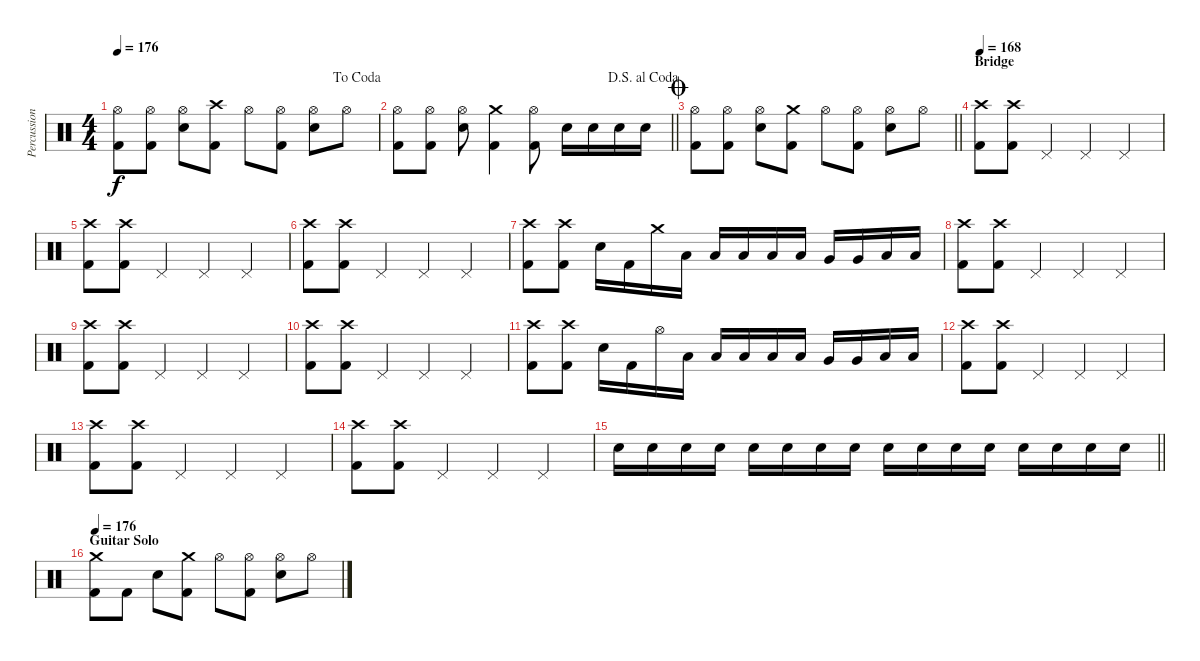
\track ("Percussion" "Percussion") {instrument percussion}
\staff {score}
\articulation defaults
\ts (4 4)
\jump dacoda
\tempo 176
\clef neutral
\ks c
("Hi-Hat (open)" "Kick (hit) 2").8{dy f} ("Hi-Hat (open)" "Kick (hit) 2").8 ("Hi-Hat (open)" "Snare (hit) 2").8 ("Crash high (hit)" "Kick (hit) 2").8 "Hi-Hat (open)".8 ("Hi-Hat (open)" "Kick (hit) 2").8 ("Hi-Hat (open)" "Snare (hit) 2").8 "Hi-Hat (open)".8 |
\jump dalsegnoalcoda
\barLineRight lightlight
("Hi-Hat (open)" "Kick (hit) 2").8 ("Hi-Hat (open)" "Kick (hit) 2").8 ("Hi-Hat (open)" "Snare (hit) 2").8 ("Crash medium (hit)" "Kick (hit) 2").4 ("Hi-Hat (open)" "Kick (hit) 2").8 "Snare (hit) 2".16 "Snare (hit) 2".16 "Snare (hit) 2".16 "Snare (hit) 2".16 |
\jump coda
\barLineRight lightlight
("Hi-Hat (open)" "Kick (hit) 2").8 ("Hi-Hat (open)" "Kick (hit) 2").8 ("Hi-Hat (open)" "Snare (hit) 2").8 ("Crash medium (hit)" "Kick (hit) 2").8 "Hi-Hat (open)".8 ("Hi-Hat (open)" "Kick (hit) 2").8 ("Hi-Hat (open)" "Snare (hit) 2").8 "Hi-Hat (open)".8 |
\section ("" "Bridge")
\tempo 168
("Crash high (hit)" "Kick (hit) 2").8 ("Crash high (hit)" "Kick (hit) 2").8 "Pedal Hi-Hat (hit)".4 "Pedal Hi-Hat (hit)".4 "Pedal Hi-Hat (hit)".4 |
("Crash high (hit)" "Kick (hit) 2").8 ("Crash high (hit)" "Kick (hit) 2").8 "Pedal Hi-Hat (hit)".4 "Pedal Hi-Hat (hit)".4 "Pedal Hi-Hat (hit)".4 |
("Crash high (hit)" "Kick (hit) 2").8 ("Crash high (hit)" "Kick (hit) 2").8 "Pedal Hi-Hat (hit)".4 "Pedal Hi-Hat (hit)".4 "Pedal Hi-Hat (hit)".4 |
("Crash high (hit)" "Kick (hit) 2").8 ("Crash high (hit)" "Kick (hit) 2").8 "Snare (hit) 2".16 "Kick (hit) 2".16 "Crash medium (hit)".16 "Low Tom (hit)".16 "Low Tom (hit)".16 "Low Tom (hit)".16 "Low Tom (hit)".16 "Low Tom (hit)".16 "Very Low Tom (hit)".16 "Very Low Tom (hit)".16 "Low Floor Tom (hit)".16 "Low Floor Tom (hit)".16 |
("Crash high (hit)" "Kick (hit) 2").8 ("Crash high (hit)" "Kick (hit) 2").8 "Pedal Hi-Hat (hit)".4 "Pedal Hi-Hat (hit)".4 "Pedal Hi-Hat (hit)".4 |
("Crash high (hit)" "Kick (hit) 2").8 ("Crash high (hit)" "Kick (hit) 2").8 "Pedal Hi-Hat (hit)".4 "Pedal Hi-Hat (hit)".4 "Pedal Hi-Hat (hit)".4 |
("Crash high (hit)" "Kick (hit) 2").8 ("Crash high (hit)" "Kick (hit) 2").8 "Pedal Hi-Hat (hit)".4 "Pedal Hi-Hat (hit)".4 "Pedal Hi-Hat (hit)".4 |
("Crash high (hit)" "Kick (hit) 2").8 ("Crash high (hit)" "Kick (hit) 2").8 "Snare (hit) 2".16 "Kick (hit) 2".16 "Hi-Hat (open)".16 "Low Tom (hit)".16 "Low Tom (hit)".16 "Low Tom (hit)".16 "Low Tom (hit)".16 "Low Tom (hit)".16 "Very Low Tom (hit)".16 "Very Low Tom (hit)".16 "Low Floor Tom (hit)".16 "Low Floor Tom (hit)".16 |
("Crash high (hit)" "Kick (hit) 2").8 ("Crash high (hit)" "Kick (hit) 2").8 "Pedal Hi-Hat (hit)".4 "Pedal Hi-Hat (hit)".4 "Pedal Hi-Hat (hit)".4 |
("Crash high (hit)" "Kick (hit) 2").8 ("Crash high (hit)" "Kick (hit) 2").8 "Pedal Hi-Hat (hit)".4 "Pedal Hi-Hat (hit)".4 "Pedal Hi-Hat (hit)".4 |
("Crash high (hit)" "Kick (hit) 2").8 ("Crash high (hit)" "Kick (hit) 2").8 "Pedal Hi-Hat (hit)".4 "Pedal Hi-Hat (hit)".4 "Pedal Hi-Hat (hit)".4 |
\barLineRight lightlight "Snare (hit) 2".16 "Snare (hit) 2".16 "Snare (hit) 2".16 "Snare (hit) 2".16 "Snare (hit) 2".16 "Snare (hit) 2".16 "Snare (hit) 2".16 "Snare (hit) 2".16 "Snare (hit) 2".16 "Snare (hit) 2".16 "Snare (hit) 2".16 "Snare (hit) 2".16 "Snare (hit) 2".16 "Snare (hit) 2".16 "Snare (hit) 2".16 "Snare (hit) 2".16
|
\section ("" "Guitar Solo")
\tempo 176
("Crash medium (hit)" "Kick (hit) 2").8 "Kick (hit) 2".8 "Snare (hit) 2".8 ("Crash medium (hit)" "Kick (hit) 2").8 "Hi-Hat (open)".8 ("Hi-Hat (open)" "Kick (hit) 2").8 ("Hi-Hat (open)" "Snare (hit) 2").8 "Hi-Hat (open)".8
